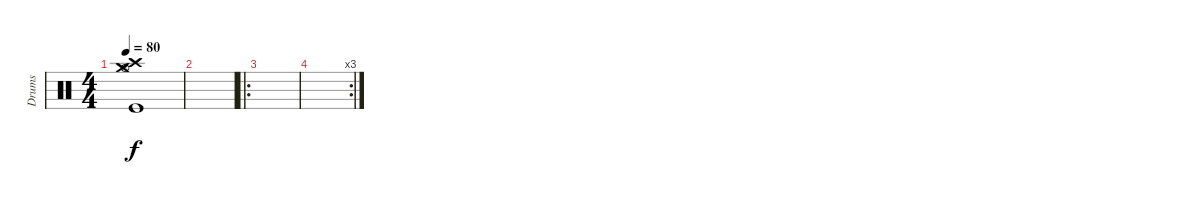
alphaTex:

\track ("Drums" "Drums") {instrument percussion}
\staff {score}
\articulation defaults
\ts (4 4)
\tempo 80
\clef neutral
\ks c
("Crash medium (hit)" "Crash high (hit)" "Hi-Hat (open)" "Kick (hit)").1{dy f} |
|
\ro
|
\rc 3
